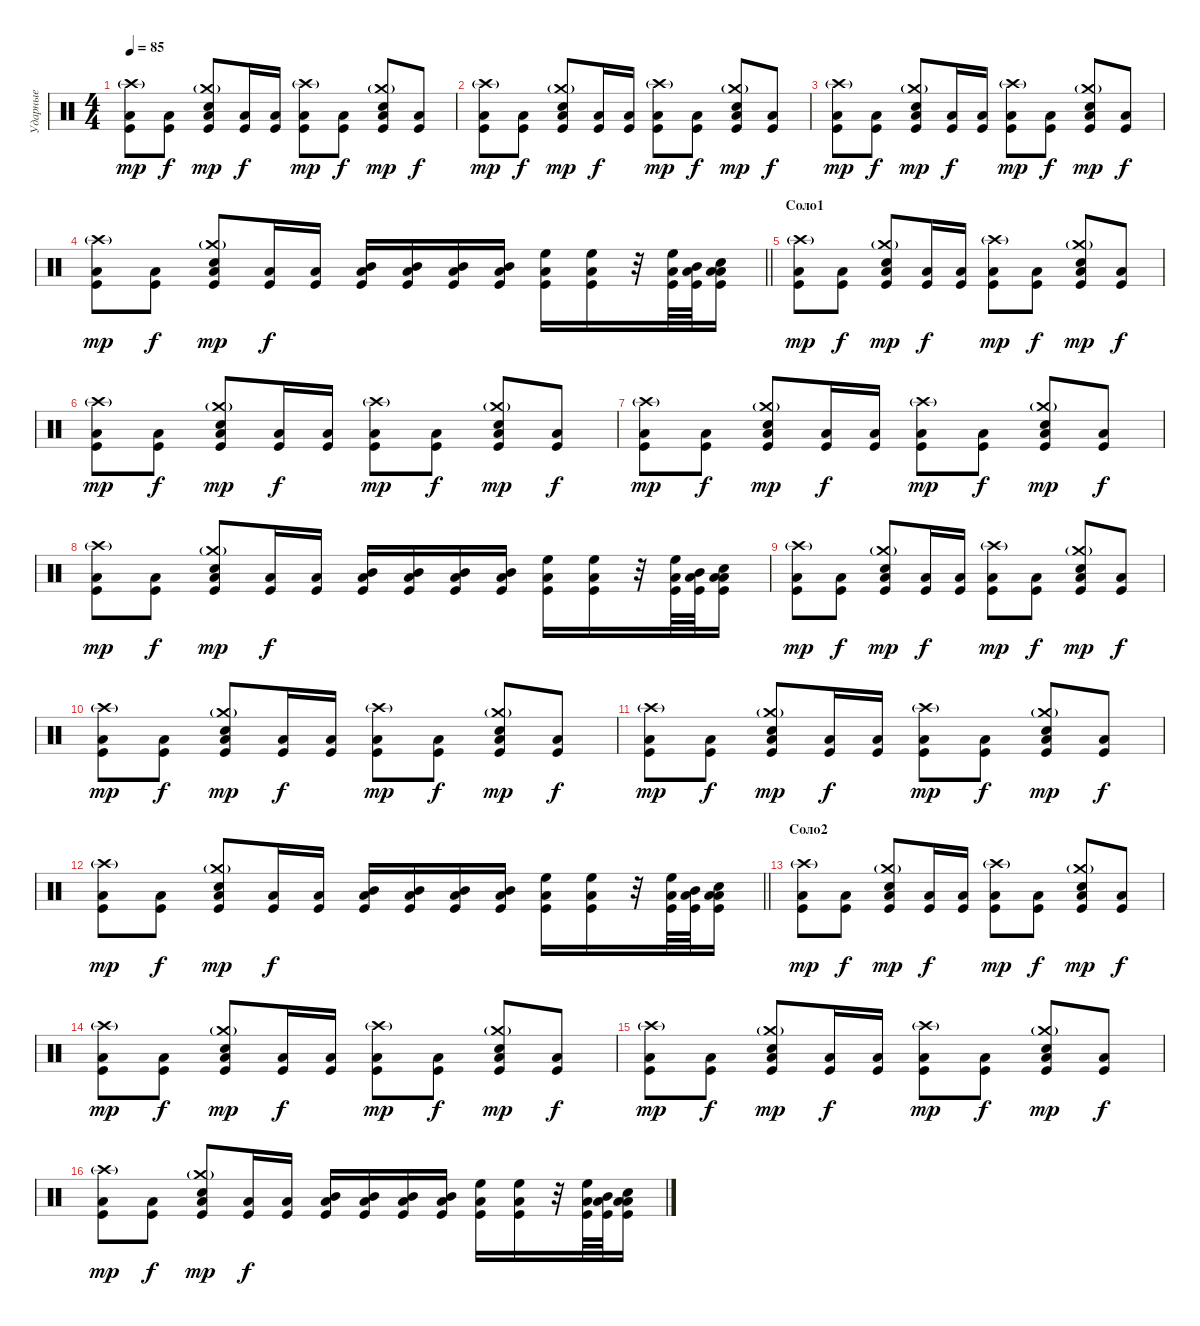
\track ("Ударные" "Ударные") {instrument percussion}
\staff {score}
\articulation defaults
\ts (4 4)
\tempo 85
\clef neutral
\ks c
("Crash high (hit)"{g} "Low Tom (hit)" "Kick (hit)").8{dy mp} ("Low Tom (hit)" "Kick (hit)").8{dy f} ("Crash medium (hit)"{g} "Electric Snare (hit)" "Low Tom (hit)" "Kick (hit)").8{dy mp} ("Low Tom (hit)" "Kick (hit)").16{dy f} ("Low Tom (hit)" "Kick (hit)").16 ("Crash high (hit)"{g} "Low Tom (hit)" "Kick (hit)").8{dy mp} ("Low Tom (hit)" "Kick (hit)").8{dy f} ("Crash medium (hit)"{g} "Electric Snare (hit)" "Low Tom (hit)" "Kick (hit)").8{dy mp} ("Low Tom (hit)" "Kick (hit)").8{dy f} |
("Crash high (hit)"{g} "Low Tom (hit)" "Kick (hit)").8{dy mp} ("Low Tom (hit)" "Kick (hit)").8{dy f} ("Crash medium (hit)"{g} "Electric Snare (hit)" "Low Tom (hit)" "Kick (hit)").8{dy mp} ("Low Tom (hit)" "Kick (hit)").16{dy f} ("Low Tom (hit)" "Kick (hit)").16 ("Crash high (hit)"{g} "Low Tom (hit)" "Kick (hit)").8{dy mp} ("Low Tom (hit)" "Kick (hit)").8{dy f} ("Crash medium (hit)"{g} "Electric Snare (hit)" "Low Tom (hit)" "Kick (hit)").8{dy mp} ("Low Tom (hit)" "Kick (hit)").8{dy f} |
("Crash high (hit)"{g} "Low Tom (hit)" "Kick (hit)").8{dy mp} ("Low Tom (hit)" "Kick (hit)").8{dy f} ("Crash medium (hit)"{g} "Electric Snare (hit)" "Low Tom (hit)" "Kick (hit)").8{dy mp} ("Low Tom (hit)" "Kick (hit)").16{dy f} ("Low Tom (hit)" "Kick (hit)").16 ("Crash high (hit)"{g} "Low Tom (hit)" "Kick (hit)").8{dy mp} ("Low Tom (hit)" "Kick (hit)").8{dy f} ("Crash medium (hit)"{g} "Electric Snare (hit)" "Low Tom (hit)" "Kick (hit)").8{dy mp} ("Low Tom (hit)" "Kick (hit)").8{dy f} |
\barLineRight lightlight
("Crash high (hit)"{g} "Low Tom (hit)" "Kick (hit)").8{dy mp} ("Low Tom (hit)" "Kick (hit)").8{dy f} ("Crash medium (hit)"{g} "Electric Snare (hit)" "Low Tom (hit)" "Kick (hit)").8{dy mp} ("Low Tom (hit)" "Kick (hit)").16{dy f} ("Low Tom (hit)" "Kick (hit)").16 ("Mid Tom (hit)" "Low Tom (hit)" "Kick (hit)").16 ("Mid Tom (hit)" "Low Tom (hit)" "Kick (hit)").16 ("Mid Tom (hit)" "Low Tom (hit)" "Kick (hit)").16 ("Mid Tom (hit)" "Low Tom (hit)" "Kick (hit)").16 ("High Floor Tom (hit)" "Low Tom (hit)" "Kick (hit)").16 ("High Floor Tom (hit)" "Low Tom (hit)" "Kick (hit)").16 r.32 ("High Floor Tom (hit)" "Low Tom (hit)" "Kick (hit)").64 ("Mid Tom (hit)" "Low Tom (hit)" "Kick (hit)").64 ("Electric Snare (hit)" "Low Tom (hit)" "Low Tom (hit)" "Kick (hit)").16 |
\section ("" "Соло1")
("Crash high (hit)"{g} "Low Tom (hit)" "Kick (hit)").8{dy mp} ("Low Tom (hit)" "Kick (hit)").8{dy f} ("Crash medium (hit)"{g} "Electric Snare (hit)" "Low Tom (hit)" "Kick (hit)").8{dy mp} ("Low Tom (hit)" "Kick (hit)").16{dy f} ("Low Tom (hit)" "Kick (hit)").16 ("Crash high (hit)"{g} "Low Tom (hit)" "Kick (hit)").8{dy mp} ("Low Tom (hit)" "Kick (hit)").8{dy f} ("Crash medium (hit)"{g} "Electric Snare (hit)" "Low Tom (hit)" "Kick (hit)").8{dy mp} ("Low Tom (hit)" "Kick (hit)").8{dy f} |
("Crash high (hit)"{g} "Low Tom (hit)" "Kick (hit)").8{dy mp} ("Low Tom (hit)" "Kick (hit)").8{dy f} ("Crash medium (hit)"{g} "Electric Snare (hit)" "Low Tom (hit)" "Kick (hit)").8{dy mp} ("Low Tom (hit)" "Kick (hit)").16{dy f} ("Low Tom (hit)" "Kick (hit)").16 ("Crash high (hit)"{g} "Low Tom (hit)" "Kick (hit)").8{dy mp} ("Low Tom (hit)" "Kick (hit)").8{dy f} ("Crash medium (hit)"{g} "Electric Snare (hit)" "Low Tom (hit)" "Kick (hit)").8{dy mp} ("Low Tom (hit)" "Kick (hit)").8{dy f} |
("Crash high (hit)"{g} "Low Tom (hit)" "Kick (hit)").8{dy mp} ("Low Tom (hit)" "Kick (hit)").8{dy f} ("Crash medium (hit)"{g} "Electric Snare (hit)" "Low Tom (hit)" "Kick (hit)").8{dy mp} ("Low Tom (hit)" "Kick (hit)").16{dy f} ("Low Tom (hit)" "Kick (hit)").16 ("Crash high (hit)"{g} "Low Tom (hit)" "Kick (hit)").8{dy mp} ("Low Tom (hit)" "Kick (hit)").8{dy f} ("Crash medium (hit)"{g} "Electric Snare (hit)" "Low Tom (hit)" "Kick (hit)").8{dy mp} ("Low Tom (hit)" "Kick (hit)").8{dy f} |
("Crash high (hit)"{g} "Low Tom (hit)" "Kick (hit)").8{dy mp} ("Low Tom (hit)" "Kick (hit)").8{dy f} ("Crash medium (hit)"{g} "Electric Snare (hit)" "Low Tom (hit)" "Kick (hit)").8{dy mp} ("Low Tom (hit)" "Kick (hit)").16{dy f} ("Low Tom (hit)" "Kick (hit)").16 ("Mid Tom (hit)" "Low Tom (hit)" "Kick (hit)").16 ("Mid Tom (hit)" "Low Tom (hit)" "Kick (hit)").16 ("Mid Tom (hit)" "Low Tom (hit)" "Kick (hit)").16 ("Mid Tom (hit)" "Low Tom (hit)" "Kick (hit)").16 ("High Floor Tom (hit)" "Low Tom (hit)" "Kick (hit)").16 ("High Floor Tom (hit)" "Low Tom (hit)" "Kick (hit)").16 r.32 ("High Floor Tom (hit)" "Low Tom (hit)" "Kick (hit)").64 ("Mid Tom (hit)" "Low Tom (hit)" "Kick (hit)").64 ("Electric Snare (hit)" "Low Tom (hit)" "Low Tom (hit)" "Kick (hit)").16 |
("Crash high (hit)"{g} "Low Tom (hit)" "Kick (hit)").8{dy mp} ("Low Tom (hit)" "Kick (hit)").8{dy f} ("Crash medium (hit)"{g} "Electric Snare (hit)" "Low Tom (hit)" "Kick (hit)").8{dy mp} ("Low Tom (hit)" "Kick (hit)").16{dy f} ("Low Tom (hit)" "Kick (hit)").16 ("Crash high (hit)"{g} "Low Tom (hit)" "Kick (hit)").8{dy mp} ("Low Tom (hit)" "Kick (hit)").8{dy f} ("Crash medium (hit)"{g} "Electric Snare (hit)" "Low Tom (hit)" "Kick (hit)").8{dy mp} ("Low Tom (hit)" "Kick (hit)").8{dy f} |
("Crash high (hit)"{g} "Low Tom (hit)" "Kick (hit)").8{dy mp} ("Low Tom (hit)" "Kick (hit)").8{dy f} ("Crash medium (hit)"{g} "Electric Snare (hit)" "Low Tom (hit)" "Kick (hit)").8{dy mp} ("Low Tom (hit)" "Kick (hit)").16{dy f} ("Low Tom (hit)" "Kick (hit)").16 ("Crash high (hit)"{g} "Low Tom (hit)" "Kick (hit)").8{dy mp} ("Low Tom (hit)" "Kick (hit)").8{dy f} ("Crash medium (hit)"{g} "Electric Snare (hit)" "Low Tom (hit)" "Kick (hit)").8{dy mp} ("Low Tom (hit)" "Kick (hit)").8{dy f} |
("Crash high (hit)"{g} "Low Tom (hit)" "Kick (hit)").8{dy mp} ("Low Tom (hit)" "Kick (hit)").8{dy f} ("Crash medium (hit)"{g} "Electric Snare (hit)" "Low Tom (hit)" "Kick (hit)").8{dy mp} ("Low Tom (hit)" "Kick (hit)").16{dy f} ("Low Tom (hit)" "Kick (hit)").16 ("Crash high (hit)"{g} "Low Tom (hit)" "Kick (hit)").8{dy mp} ("Low Tom (hit)" "Kick (hit)").8{dy f} ("Crash medium (hit)"{g} "Electric Snare (hit)" "Low Tom (hit)" "Kick (hit)").8{dy mp} ("Low Tom (hit)" "Kick (hit)").8{dy f} |
\barLineRight lightlight
("Crash high (hit)"{g} "Low Tom (hit)" "Kick (hit)").8{dy mp} ("Low Tom (hit)" "Kick (hit)").8{dy f} ("Crash medium (hit)"{g} "Electric Snare (hit)" "Low Tom (hit)" "Kick (hit)").8{dy mp} ("Low Tom (hit)" "Kick (hit)").16{dy f} ("Low Tom (hit)" "Kick (hit)").16 ("Mid Tom (hit)" "Low Tom (hit)" "Kick (hit)").16 ("Mid Tom (hit)" "Low Tom (hit)" "Kick (hit)").16 ("Mid Tom (hit)" "Low Tom (hit)" "Kick (hit)").16 ("Mid Tom (hit)" "Low Tom (hit)" "Kick (hit)").16 ("High Floor Tom (hit)" "Low Tom (hit)" "Kick (hit)").16 ("High Floor Tom (hit)" "Low Tom (hit)" "Kick (hit)").16 r.32 ("High Floor Tom (hit)" "Low Tom (hit)" "Kick (hit)").64 ("Mid Tom (hit)" "Low Tom (hit)" "Kick (hit)").64 ("Electric Snare (hit)" "Low Tom (hit)" "Low Tom (hit)" "Kick (hit)").16 |
\section ("" "Соло2")
("Crash high (hit)"{g} "Low Tom (hit)" "Kick (hit)").8{dy mp} ("Low Tom (hit)" "Kick (hit)").8{dy f} ("Crash medium (hit)"{g} "Electric Snare (hit)" "Low Tom (hit)" "Kick (hit)").8{dy mp} ("Low Tom (hit)" "Kick (hit)").16{dy f} ("Low Tom (hit)" "Kick (hit)").16 ("Crash high (hit)"{g} "Low Tom (hit)" "Kick (hit)").8{dy mp} ("Low Tom (hit)" "Kick (hit)").8{dy f} ("Crash medium (hit)"{g} "Electric Snare (hit)" "Low Tom (hit)" "Kick (hit)").8{dy mp} ("Low Tom (hit)" "Kick (hit)").8{dy f} |
("Crash high (hit)"{g} "Low Tom (hit)" "Kick (hit)").8{dy mp} ("Low Tom (hit)" "Kick (hit)").8{dy f} ("Crash medium (hit)"{g} "Electric Snare (hit)" "Low Tom (hit)" "Kick (hit)").8{dy mp} ("Low Tom (hit)" "Kick (hit)").16{dy f} ("Low Tom (hit)" "Kick (hit)").16 ("Crash high (hit)"{g} "Low Tom (hit)" "Kick (hit)").8{dy mp} ("Low Tom (hit)" "Kick (hit)").8{dy f} ("Crash medium (hit)"{g} "Electric Snare (hit)" "Low Tom (hit)" "Kick (hit)").8{dy mp} ("Low Tom (hit)" "Kick (hit)").8{dy f} |
("Crash high (hit)"{g} "Low Tom (hit)" "Kick (hit)").8{dy mp} ("Low Tom (hit)" "Kick (hit)").8{dy f} ("Crash medium (hit)"{g} "Electric Snare (hit)" "Low Tom (hit)" "Kick (hit)").8{dy mp} ("Low Tom (hit)" "Kick (hit)").16{dy f} ("Low Tom (hit)" "Kick (hit)").16 ("Crash high (hit)"{g} "Low Tom (hit)" "Kick (hit)").8{dy mp} ("Low Tom (hit)" "Kick (hit)").8{dy f} ("Crash medium (hit)"{g} "Electric Snare (hit)" "Low Tom (hit)" "Kick (hit)").8{dy mp} ("Low Tom (hit)" "Kick (hit)").8{dy f} |
("Crash high (hit)"{g} "Low Tom (hit)" "Kick (hit)").8{dy mp} ("Low Tom (hit)" "Kick (hit)").8{dy f} ("Crash medium (hit)"{g} "Electric Snare (hit)" "Low Tom (hit)" "Kick (hit)").8{dy mp} ("Low Tom (hit)" "Kick (hit)").16{dy f} ("Low Tom (hit)" "Kick (hit)").16 ("Mid Tom (hit)" "Low Tom (hit)" "Kick (hit)").16 ("Mid Tom (hit)" "Low Tom (hit)" "Kick (hit)").16 ("Mid Tom (hit)" "Low Tom (hit)" "Kick (hit)").16 ("Mid Tom (hit)" "Low Tom (hit)" "Kick (hit)").16 ("High Floor Tom (hit)" "Low Tom (hit)" "Kick (hit)").16 ("High Floor Tom (hit)" "Low Tom (hit)" "Kick (hit)").16 r.32 ("High Floor Tom (hit)" "Low Tom (hit)" "Kick (hit)").64 ("Mid Tom (hit)" "Low Tom (hit)" "Kick (hit)").64 ("Electric Snare (hit)" "Low Tom (hit)" "Low Tom (hit)" "Kick (hit)").16
